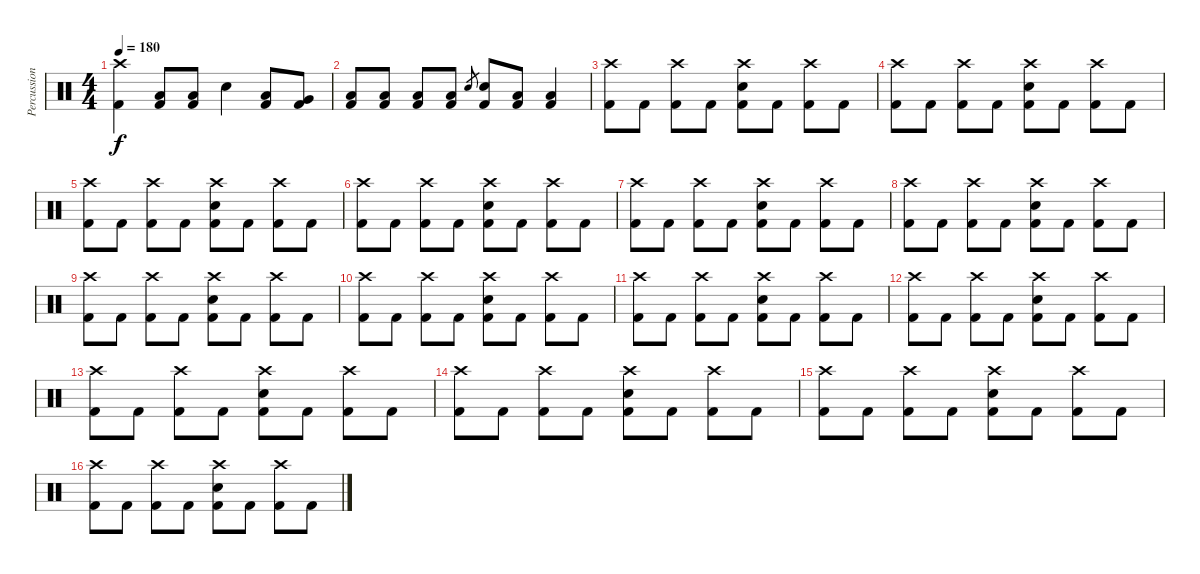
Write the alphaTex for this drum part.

\track ("Percussion" "Percussion") {instrument percussion}
\staff {score}
\articulation defaults
\ts (4 4)
\tempo 180
\clef neutral
\ks c
("Crash high (hit)" "Kick (hit) 2").4{dy f} ("Low Tom (hit)" "Kick (hit) 2").8 ("Low Tom (hit)" "Kick (hit) 2").8 "Electric Snare (hit)".4 ("Low Tom (hit)" "Kick (hit) 2").8 ("Very Low Tom (hit)" "Kick (hit) 2").8 |
("Low Tom (hit)" "Kick (hit) 2").8 ("Low Tom (hit)" "Kick (hit) 2").8 ("Low Tom (hit)" "Kick (hit) 2").8 ("Low Tom (hit)" "Kick (hit) 2").8 "Electric Snare (hit)".8{gr} ("Electric Snare (hit)" "Kick (hit) 2").8 ("Low Tom (hit)" "Kick (hit) 2").8 ("Low Tom (hit)" "Kick (hit) 2").4 |
("Crash high (hit)" "Kick (hit) 2").8 "Kick (hit) 2".8 ("Crash high (hit)" "Kick (hit) 2").8 "Kick (hit) 2".8 ("Crash high (hit)" "Electric Snare (hit)" "Kick (hit) 2").8 "Kick (hit) 2".8 ("Crash high (hit)" "Kick (hit) 2").8 "Kick (hit) 2".8 |
("Crash high (hit)" "Kick (hit) 2").8 "Kick (hit) 2".8 ("Crash high (hit)" "Kick (hit) 2").8 "Kick (hit) 2".8 ("Crash high (hit)" "Electric Snare (hit)" "Kick (hit) 2").8 "Kick (hit) 2".8 ("Crash high (hit)" "Kick (hit) 2").8 "Kick (hit) 2".8 |
("Crash high (hit)" "Kick (hit) 2").8 "Kick (hit) 2".8 ("Crash high (hit)" "Kick (hit) 2").8 "Kick (hit) 2".8 ("Crash high (hit)" "Electric Snare (hit)" "Kick (hit) 2").8 "Kick (hit) 2".8 ("Crash high (hit)" "Kick (hit) 2").8 "Kick (hit) 2".8 |
("Crash high (hit)" "Kick (hit) 2").8 "Kick (hit) 2".8 ("Crash high (hit)" "Kick (hit) 2").8 "Kick (hit) 2".8 ("Crash high (hit)" "Electric Snare (hit)" "Kick (hit) 2").8 "Kick (hit) 2".8 ("Crash high (hit)" "Kick (hit) 2").8 "Kick (hit) 2".8 |
("Crash high (hit)" "Kick (hit) 2").8 "Kick (hit) 2".8 ("Crash high (hit)" "Kick (hit) 2").8 "Kick (hit) 2".8 ("Crash high (hit)" "Electric Snare (hit)" "Kick (hit) 2").8 "Kick (hit) 2".8 ("Crash high (hit)" "Kick (hit) 2").8 "Kick (hit) 2".8 |
("Crash high (hit)" "Kick (hit) 2").8 "Kick (hit) 2".8 ("Crash high (hit)" "Kick (hit) 2").8 "Kick (hit) 2".8 ("Crash high (hit)" "Electric Snare (hit)" "Kick (hit) 2").8 "Kick (hit) 2".8 ("Crash high (hit)" "Kick (hit) 2").8 "Kick (hit) 2".8 |
("Crash high (hit)" "Kick (hit) 2").8 "Kick (hit) 2".8 ("Crash high (hit)" "Kick (hit) 2").8 "Kick (hit) 2".8 ("Crash high (hit)" "Electric Snare (hit)" "Kick (hit) 2").8 "Kick (hit) 2".8 ("Crash high (hit)" "Kick (hit) 2").8 "Kick (hit) 2".8 |
("Crash high (hit)" "Kick (hit) 2").8 "Kick (hit) 2".8 ("Crash high (hit)" "Kick (hit) 2").8 "Kick (hit) 2".8 ("Crash high (hit)" "Electric Snare (hit)" "Kick (hit) 2").8 "Kick (hit) 2".8 ("Crash high (hit)" "Kick (hit) 2").8 "Kick (hit) 2".8 |
("Crash high (hit)" "Kick (hit) 2").8 "Kick (hit) 2".8 ("Crash high (hit)" "Kick (hit) 2").8 "Kick (hit) 2".8 ("Crash high (hit)" "Electric Snare (hit)" "Kick (hit) 2").8 "Kick (hit) 2".8 ("Crash high (hit)" "Kick (hit) 2").8 "Kick (hit) 2".8 |
("Crash high (hit)" "Kick (hit) 2").8 "Kick (hit) 2".8 ("Crash high (hit)" "Kick (hit) 2").8 "Kick (hit) 2".8 ("Crash high (hit)" "Electric Snare (hit)" "Kick (hit) 2").8 "Kick (hit) 2".8 ("Crash high (hit)" "Kick (hit) 2").8 "Kick (hit) 2".8 |
("Crash high (hit)" "Kick (hit) 2").8 "Kick (hit) 2".8 ("Crash high (hit)" "Kick (hit) 2").8 "Kick (hit) 2".8 ("Crash high (hit)" "Electric Snare (hit)" "Kick (hit) 2").8 "Kick (hit) 2".8 ("Crash high (hit)" "Kick (hit) 2").8 "Kick (hit) 2".8 |
("Crash high (hit)" "Kick (hit) 2").8 "Kick (hit) 2".8 ("Crash high (hit)" "Kick (hit) 2").8 "Kick (hit) 2".8 ("Crash high (hit)" "Electric Snare (hit)" "Kick (hit) 2").8 "Kick (hit) 2".8 ("Crash high (hit)" "Kick (hit) 2").8 "Kick (hit) 2".8 |
("Crash high (hit)" "Kick (hit) 2").8 "Kick (hit) 2".8 ("Crash high (hit)" "Kick (hit) 2").8 "Kick (hit) 2".8 ("Crash high (hit)" "Electric Snare (hit)" "Kick (hit) 2").8 "Kick (hit) 2".8 ("Crash high (hit)" "Kick (hit) 2").8 "Kick (hit) 2".8 |
("Crash high (hit)" "Kick (hit) 2").8 "Kick (hit) 2".8 ("Crash high (hit)" "Kick (hit) 2").8 "Kick (hit) 2".8 ("Crash high (hit)" "Electric Snare (hit)" "Kick (hit) 2").8 "Kick (hit) 2".8 ("Crash high (hit)" "Kick (hit) 2").8 "Kick (hit) 2".8
